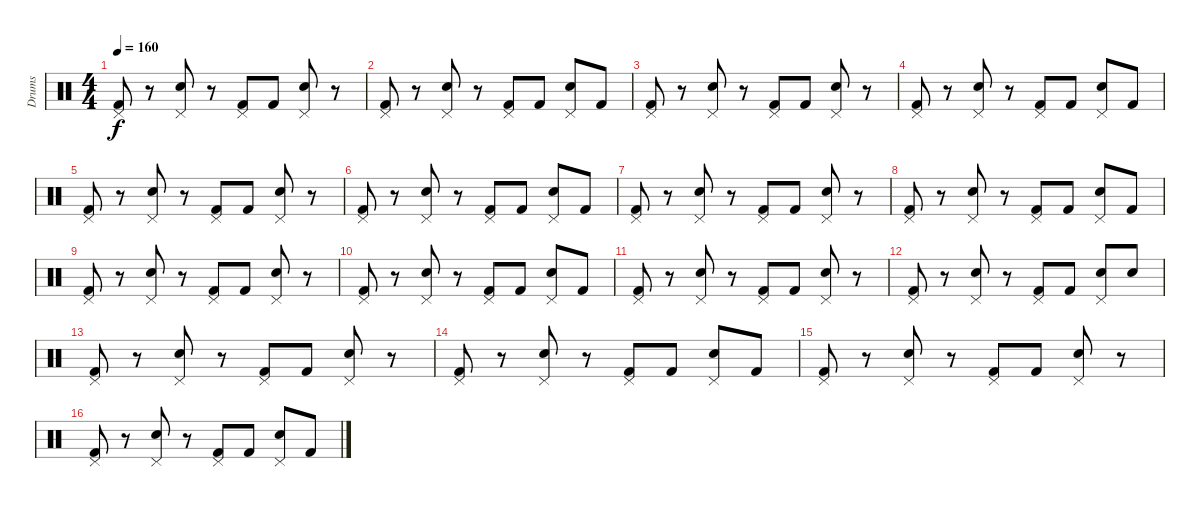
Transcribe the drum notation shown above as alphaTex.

\track ("Drums" "Drums") {instrument percussion}
\staff {score}
\articulation defaults
\ts (4 4)
\tempo 160
\clef neutral
\ks c
("Pedal Hi-Hat (hit)" "Kick (hit) 2").8{dy f} r.8 ("Pedal Hi-Hat (hit)" "Snare (hit) 2").8 r.8 ("Pedal Hi-Hat (hit)" "Kick (hit) 2").8 "Kick (hit) 2".8 ("Pedal Hi-Hat (hit)" "Snare (hit) 2").8 r.8 |
("Pedal Hi-Hat (hit)" "Kick (hit) 2").8 r.8 ("Pedal Hi-Hat (hit)" "Snare (hit) 2").8 r.8 ("Pedal Hi-Hat (hit)" "Kick (hit) 2").8 "Kick (hit) 2".8 ("Pedal Hi-Hat (hit)" "Snare (hit) 2").8 "Kick (hit) 2".8 |
("Pedal Hi-Hat (hit)" "Kick (hit) 2").8 r.8 ("Pedal Hi-Hat (hit)" "Snare (hit) 2").8 r.8 ("Pedal Hi-Hat (hit)" "Kick (hit) 2").8 "Kick (hit) 2".8 ("Pedal Hi-Hat (hit)" "Snare (hit) 2").8 r.8 |
("Pedal Hi-Hat (hit)" "Kick (hit) 2").8 r.8 ("Pedal Hi-Hat (hit)" "Snare (hit) 2").8 r.8 ("Pedal Hi-Hat (hit)" "Kick (hit) 2").8 "Kick (hit) 2".8 ("Pedal Hi-Hat (hit)" "Snare (hit) 2").8 "Kick (hit) 2".8 |
("Pedal Hi-Hat (hit)" "Kick (hit) 2").8 r.8 ("Pedal Hi-Hat (hit)" "Snare (hit) 2").8 r.8 ("Pedal Hi-Hat (hit)" "Kick (hit) 2").8 "Kick (hit) 2".8 ("Pedal Hi-Hat (hit)" "Snare (hit) 2").8 r.8 |
("Pedal Hi-Hat (hit)" "Kick (hit) 2").8 r.8 ("Pedal Hi-Hat (hit)" "Snare (hit) 2").8 r.8 ("Pedal Hi-Hat (hit)" "Kick (hit) 2").8 "Kick (hit) 2".8 ("Pedal Hi-Hat (hit)" "Snare (hit) 2").8 "Kick (hit) 2".8 |
("Pedal Hi-Hat (hit)" "Kick (hit) 2").8 r.8 ("Pedal Hi-Hat (hit)" "Snare (hit) 2").8 r.8 ("Pedal Hi-Hat (hit)" "Kick (hit) 2").8 "Kick (hit) 2".8 ("Pedal Hi-Hat (hit)" "Snare (hit) 2").8 r.8 |
("Pedal Hi-Hat (hit)" "Kick (hit) 2").8 r.8 ("Pedal Hi-Hat (hit)" "Snare (hit) 2").8 r.8 ("Pedal Hi-Hat (hit)" "Kick (hit) 2").8 "Kick (hit) 2".8 ("Pedal Hi-Hat (hit)" "Snare (hit) 2").8 "Kick (hit) 2".8 |
("Pedal Hi-Hat (hit)" "Kick (hit) 2").8 r.8 ("Pedal Hi-Hat (hit)" "Snare (hit) 2").8 r.8 ("Pedal Hi-Hat (hit)" "Kick (hit) 2").8 "Kick (hit) 2".8 ("Pedal Hi-Hat (hit)" "Snare (hit) 2").8 r.8 |
("Pedal Hi-Hat (hit)" "Kick (hit) 2").8 r.8 ("Pedal Hi-Hat (hit)" "Snare (hit) 2").8 r.8 ("Pedal Hi-Hat (hit)" "Kick (hit) 2").8 "Kick (hit) 2".8 ("Pedal Hi-Hat (hit)" "Snare (hit) 2").8 "Kick (hit) 2".8 |
("Pedal Hi-Hat (hit)" "Kick (hit) 2").8 r.8 ("Pedal Hi-Hat (hit)" "Snare (hit) 2").8 r.8 ("Pedal Hi-Hat (hit)" "Kick (hit) 2").8 "Kick (hit) 2".8 ("Pedal Hi-Hat (hit)" "Snare (hit) 2").8 r.8 |
("Pedal Hi-Hat (hit)" "Kick (hit) 2").8 r.8 ("Pedal Hi-Hat (hit)" "Snare (hit) 2").8 r.8 ("Pedal Hi-Hat (hit)" "Kick (hit) 2").8 "Kick (hit) 2".8 ("Pedal Hi-Hat (hit)" "Snare (hit) 2").8 "Snare (hit) 2".8 |
("Pedal Hi-Hat (hit)" "Kick (hit) 2").8 r.8 ("Pedal Hi-Hat (hit)" "Snare (hit) 2").8 r.8 ("Pedal Hi-Hat (hit)" "Kick (hit) 2").8 "Kick (hit) 2".8 ("Pedal Hi-Hat (hit)" "Snare (hit) 2").8 r.8 |
("Pedal Hi-Hat (hit)" "Kick (hit) 2").8 r.8 ("Pedal Hi-Hat (hit)" "Snare (hit) 2").8 r.8 ("Pedal Hi-Hat (hit)" "Kick (hit) 2").8 "Kick (hit) 2".8 ("Pedal Hi-Hat (hit)" "Snare (hit) 2").8 "Kick (hit) 2".8 |
("Pedal Hi-Hat (hit)" "Kick (hit) 2").8 r.8 ("Pedal Hi-Hat (hit)" "Snare (hit) 2").8 r.8 ("Pedal Hi-Hat (hit)" "Kick (hit) 2").8 "Kick (hit) 2".8 ("Pedal Hi-Hat (hit)" "Snare (hit) 2").8 r.8 |
("Pedal Hi-Hat (hit)" "Kick (hit) 2").8 r.8 ("Pedal Hi-Hat (hit)" "Snare (hit) 2").8 r.8 ("Pedal Hi-Hat (hit)" "Kick (hit) 2").8 "Kick (hit) 2".8 ("Pedal Hi-Hat (hit)" "Snare (hit) 2").8 "Kick (hit) 2".8
